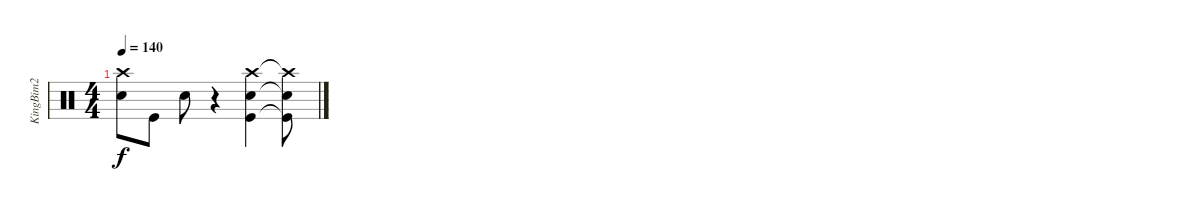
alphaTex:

\track ("KingBim2" "KingBim2") {instrument percussion}
\staff {score}
\articulation defaults
\ts (4 4)
\tempo 140
\clef neutral
\ks c
("Crash high (hit)" "Snare (hit) 2").8{dy f} "Kick (hit)".8 "Snare (hit) 2".8 r.4 ("Crash high (hit)" "Snare (hit) 2" "Kick (hit)").4 ("Crash high (hit)"{t} "Snare (hit) 2"{t} "Kick (hit)"{t}).8
